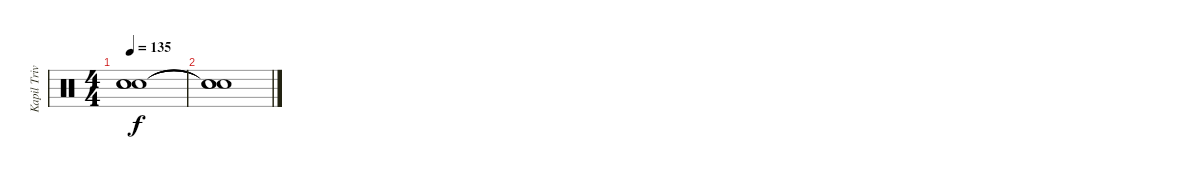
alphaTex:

\track ("Kapil Trivedi (Percussion)" "Kapil Triv") {instrument percussion}
\staff {score}
\articulation defaults
\ts (4 4)
\tempo 135
\clef neutral
\ks c
("Snare (hit)"{t} "Snare (hit)"{t} "Snare (hit)"{t}).1{dy f} |
("Snare (hit)"{t} "Snare (hit)"{t} "Snare (hit)"{t}).1{volume 0}
